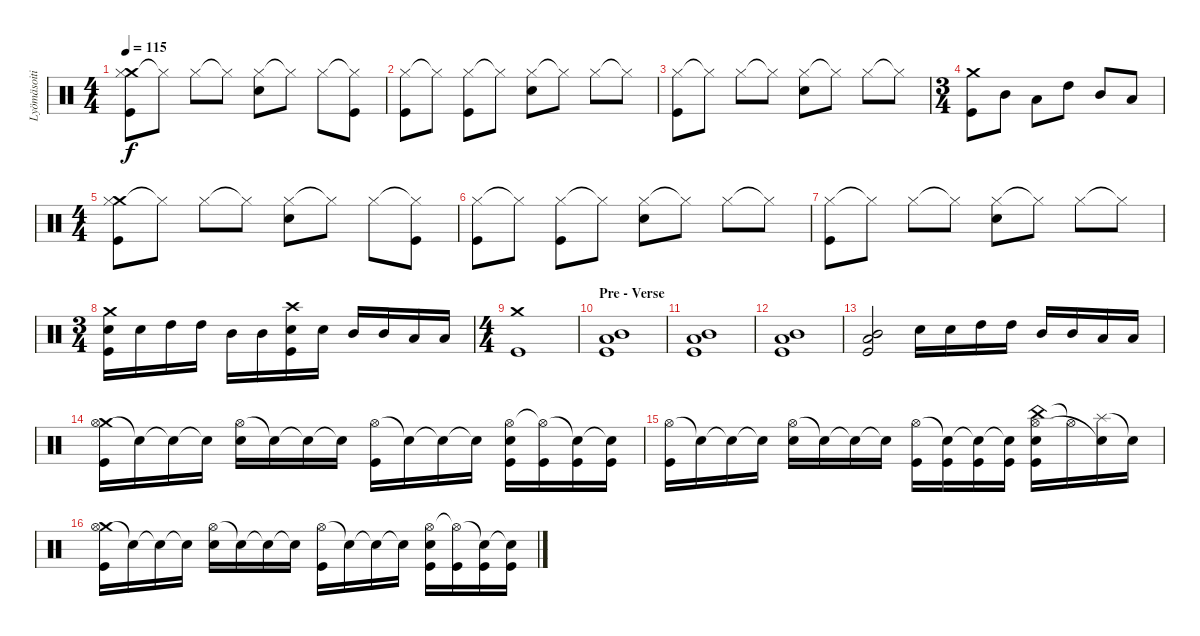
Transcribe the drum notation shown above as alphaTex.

\track ("Lyömäsoitin" "Lyömäsoiti") {instrument percussion}
\staff {score}
\articulation defaults
\ts (4 4)
\tempo 115
\clef neutral
\ks c
("Crash medium (hit)" "Hi-Hat (closed)" "Kick (hit)").8{dy f} "Hi-Hat (closed)"{t}.8 "Hi-Hat (closed)".8 "Hi-Hat (closed)"{t}.8 ("Hi-Hat (closed)" "Snare (hit) 2").8 "Hi-Hat (closed)"{t}.8 "Hi-Hat (closed)".8 ("Hi-Hat (closed)"{t} "Kick (hit)").8 |
("Hi-Hat (closed)" "Kick (hit)").8 "Hi-Hat (closed)"{t}.8 ("Hi-Hat (closed)" "Kick (hit)").8 "Hi-Hat (closed)"{t}.8 ("Hi-Hat (closed)" "Snare (hit) 2").8 "Hi-Hat (closed)"{t}.8 "Hi-Hat (closed)".8 "Hi-Hat (closed)"{t}.8 |
("Hi-Hat (closed)" "Kick (hit)").8 "Hi-Hat (closed)"{t}.8 "Hi-Hat (closed)".8 "Hi-Hat (closed)"{t}.8 ("Hi-Hat (closed)" "Snare (hit) 2").8 "Hi-Hat (closed)"{t}.8 "Hi-Hat (closed)".8 "Hi-Hat (closed)"{t}.8 |
\ts (3 4)
("Crash medium (hit)" "Kick (hit)").8 "Mid Tom (hit)".8 "Low Tom (hit)".8 "High Tom (hit)".8 "Mid Tom (hit)".8 "Low Tom (hit)".8 |
\ts (4 4)
("Crash medium (hit)" "Hi-Hat (closed)" "Kick (hit)").8 "Hi-Hat (closed)"{t}.8 "Hi-Hat (closed)".8 "Hi-Hat (closed)"{t}.8 ("Hi-Hat (closed)" "Snare (hit) 2").8 "Hi-Hat (closed)"{t}.8 "Hi-Hat (closed)".8 ("Hi-Hat (closed)"{t} "Kick (hit)").8 |
("Hi-Hat (closed)" "Kick (hit)").8 "Hi-Hat (closed)"{t}.8 ("Hi-Hat (closed)" "Kick (hit)").8 "Hi-Hat (closed)"{t}.8 ("Hi-Hat (closed)" "Snare (hit) 2").8 "Hi-Hat (closed)"{t}.8 "Hi-Hat (closed)".8 "Hi-Hat (closed)"{t}.8 |
("Hi-Hat (closed)" "Kick (hit)").8 "Hi-Hat (closed)"{t}.8 "Hi-Hat (closed)".8 "Hi-Hat (closed)"{t}.8 ("Hi-Hat (closed)" "Snare (hit) 2").8 "Hi-Hat (closed)"{t}.8 "Hi-Hat (closed)".8 "Hi-Hat (closed)"{t}.8 |
\ts (3 4)
("Crash medium (hit)" "Snare (hit) 2" "Kick (hit)").16 "Snare (hit) 2".16 "High Tom (hit)".16 "High Tom (hit)".16 "Mid Tom (hit)".16 "Mid Tom (hit)".16 ("Crash high (hit)" "Snare (hit) 2" "Kick (hit)").16 "Snare (hit) 2".16 "Mid Tom (hit)".16 "Mid Tom (hit)".16 "Low Tom (hit)".16 "Low Tom (hit)".16 |
\ts (4 4)
("Crash medium (hit)" "Kick (hit)").1 |
\section ("" "Pre - Verse")
("Mid Tom (hit)" "Low Tom (hit)" "Kick (hit)").1 |
("Mid Tom (hit)" "Low Tom (hit)" "Kick (hit)").1 |
("Mid Tom (hit)" "Low Tom (hit)" "Kick (hit)").1 |
("Mid Tom (hit)" "Low Tom (hit)" "Kick (hit)").2 "Snare (hit) 2".16 "Snare (hit) 2".16 "High Tom (hit)".16 "High Tom (hit)".16 "Mid Tom (hit)".16 "Mid Tom (hit)".16 "Low Tom (hit)".16 "Low Tom (hit)".16 |
("Crash medium (hit)" "Hi-Hat (open)" "Kick (hit)").16 "Snare (hit)"{t}.16 "Snare (hit)"{t}.16 "Snare (hit)"{t}.16 ("Hi-Hat (open)" "Snare (hit) 2").16 "Snare (hit)"{t}.16 "Snare (hit)"{t}.16 "Snare (hit)"{t}.16 ("Hi-Hat (open)" "Kick (hit)").16 "Snare (hit)"{t}.16 "Snare (hit)"{t}.16 "Snare (hit)"{t}.16 ("Hi-Hat (open)" "Snare (hit) 2" "Kick (hit)").16 ("Hi-Hat (open)"{t} "Kick (hit)").16 ("Snare (hit)"{t} "Kick (hit)").16 ("Snare (hit)"{t} "Kick (hit)").16 |
("Hi-Hat (open)" "Kick (hit)").16 "Snare (hit)"{t}.16 "Snare (hit)"{t}.16 "Snare (hit)"{t}.16 ("Hi-Hat (open)" "Snare (hit) 2").16 "Snare (hit)"{t}.16 "Snare (hit)"{t}.16 "Snare (hit)"{t}.16 ("Hi-Hat (open)" "Kick (hit)").16 ("Snare (hit)"{t} "Kick (hit)").16 ("Snare (hit)"{t} "Kick (hit)").16 ("Snare (hit)"{t} "Kick (hit)").16 ("China (hit)" "Hi-Hat (open)" "Snare (hit) 2" "Kick (hit)").16 "Hi-Hat (open)"{t}.16 ("Splash (hit)" "Snare (hit)"{t}).16 "Snare (hit)"{t}.16 |
("Crash medium (hit)" "Hi-Hat (open)" "Kick (hit)").16 "Snare (hit)"{t}.16 "Snare (hit)"{t}.16 "Snare (hit)"{t}.16 ("Hi-Hat (open)" "Snare (hit) 2").16 "Snare (hit)"{t}.16 "Snare (hit)"{t}.16 "Snare (hit)"{t}.16 ("Hi-Hat (open)" "Kick (hit)").16 "Snare (hit)"{t}.16 "Snare (hit)"{t}.16 "Snare (hit)"{t}.16 ("Hi-Hat (open)" "Snare (hit) 2" "Kick (hit)").16 ("Hi-Hat (open)"{t} "Kick (hit)").16 ("Snare (hit)"{t} "Kick (hit)").16 ("Snare (hit)"{t} "Kick (hit)").16
